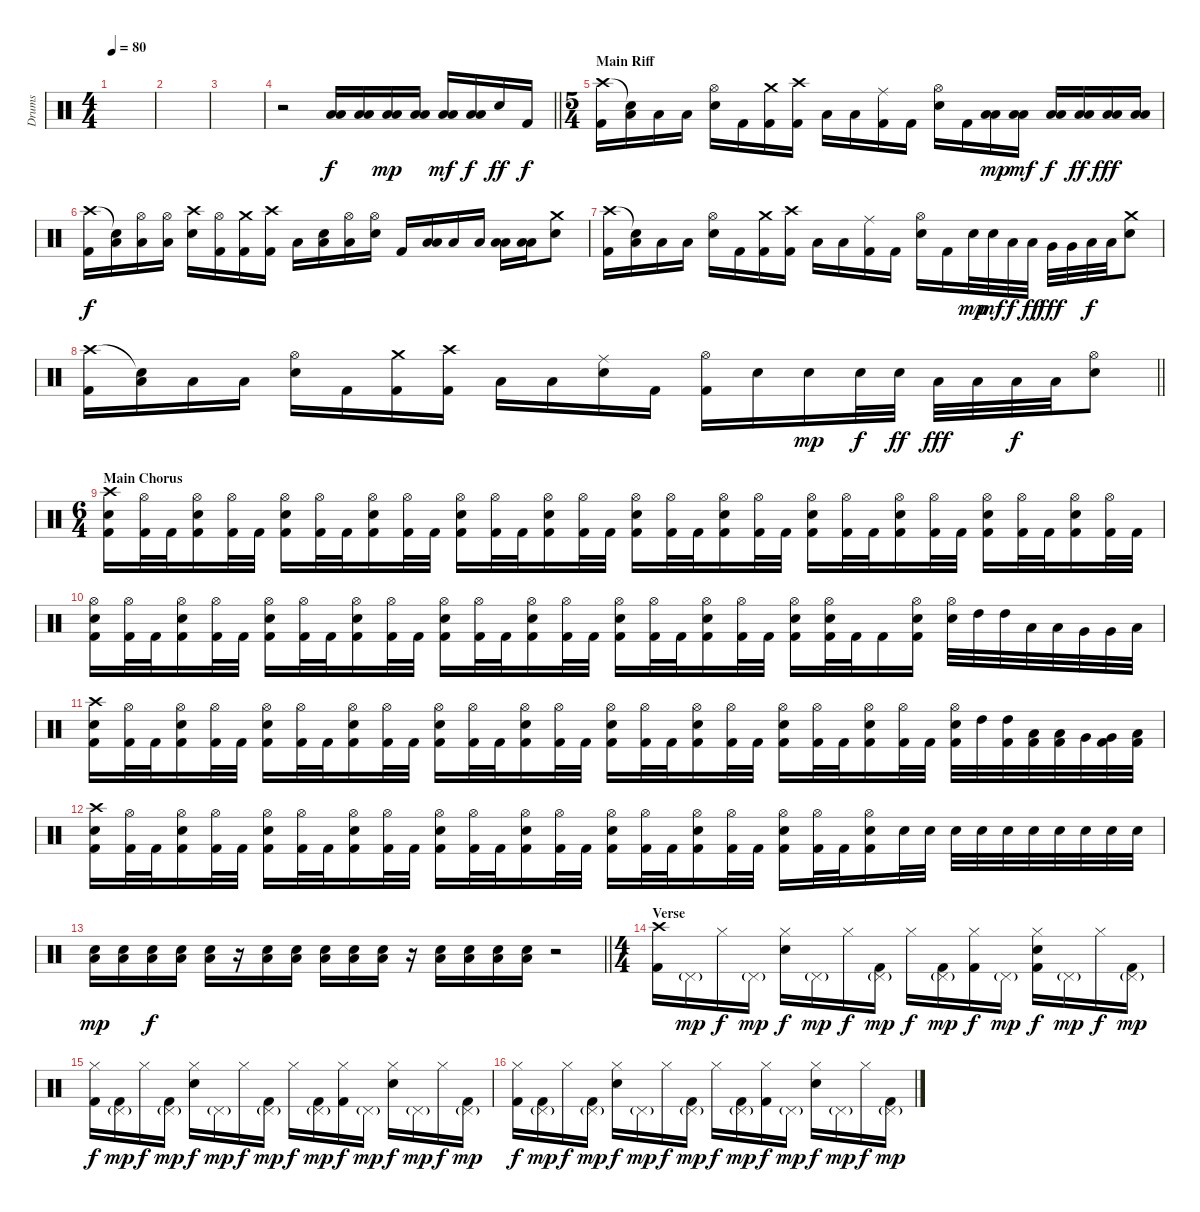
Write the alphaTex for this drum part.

\track ("Drums" "Drums") {instrument percussion}
\staff {score}
\articulation defaults
\ts (4 4)
\tempo 80
\clef neutral
\ks c
|
|
|
\barLineRight lightlight
r.2 ("Low Tom (hit)" "Low Floor Tom (hit)").16 ("Low Tom (hit)" "Low Floor Tom (hit)").16 ("Low Tom (hit)" "Low Floor Tom (hit)").16{dy mp} ("Low Tom (hit)" "Low Floor Tom (hit)").16 ("Low Tom (hit)" "Low Floor Tom (hit)").16{dy mf} ("Low Tom (hit)" "Low Floor Tom (hit)").16{dy f} "Electric Snare (hit)".16{dy ff} "Kick (hit) 2".16{dy f} |
\ts (5 4)
\section ("" "Main Riff")
("Crash high (hit)" "Kick (hit) 2").16 ("Snare (hit)"{t} "Low Floor Tom (hit)").16 "Low Floor Tom (hit)".16 "Low Floor Tom (hit)".16 ("Hi-Hat (open)" "Electric Snare (hit)").16 "Kick (hit) 2".16 ("Crash medium (hit)" "Kick (hit) 2").16 ("Crash high (hit)" "Kick (hit) 2").16 "Low Floor Tom (hit)".16 "Low Floor Tom (hit)".16 ("Ride (middle)" "Kick (hit) 2").16 "Kick (hit) 2".16 ("Hi-Hat (open)" "Electric Snare (hit)").16 "Kick (hit) 2".16 ("Low Tom (hit)" "Low Floor Tom (hit)").16{dy mp} ("Low Tom (hit)" "Low Floor Tom (hit)").16{dy mf} ("Low Tom (hit)" "Low Floor Tom (hit)").16{dy f} ("Low Tom (hit)" "Low Floor Tom (hit)").16{dy ff} ("Low Tom (hit)" "Low Floor Tom (hit)").16{dy fff} ("Low Tom (hit)" "Low Floor Tom (hit)").16 |
("Crash high (hit)" "Kick (hit) 2").16{dy f} ("Snare (hit)"{t} "Low Floor Tom (hit)").16 ("Hi-Hat (open)" "Low Floor Tom (hit)").16 ("Hi-Hat (open)" "Low Floor Tom (hit)").16 ("Crash high (hit)" "Electric Snare (hit)").16 ("Hi-Hat (open)" "Kick (hit) 2").16 ("Crash medium (hit)" "Kick (hit) 2").16 ("Crash high (hit)" "Kick (hit) 2").16 "Low Floor Tom (hit)".16 ("Snare (hit)" "Low Floor Tom (hit)").16 ("Hi-Hat (open)" "Low Floor Tom (hit)").16 ("Hi-Hat (open)" "Electric Snare (hit)").16 "Kick (hit) 2".16 ("Low Tom (hit)" "Low Floor Tom (hit)").16 "Low Floor Tom (hit)".16 "Low Floor Tom (hit)".16 ("Low Tom (hit)" "Low Floor Tom (hit)").16 ("Low Tom (hit)" "Low Floor Tom (hit)").16 ("Crash medium (hit)" "Electric Snare (hit)").8 |
("Crash high (hit)" "Kick (hit) 2").16 ("Snare (hit)"{t} "Low Floor Tom (hit)").16 "Low Floor Tom (hit)".16 "Low Floor Tom (hit)".16 ("Hi-Hat (open)" "Electric Snare (hit)").16 "Kick (hit) 2".16 ("Crash medium (hit)" "Kick (hit) 2").16 ("Crash high (hit)" "Kick (hit) 2").16 "Low Floor Tom (hit)".16 "Low Floor Tom (hit)".16 ("Ride (middle)" "Kick (hit) 2").16 "Kick (hit) 2".16 ("Hi-Hat (open)" "Electric Snare (hit)").16 "Kick (hit) 2".16 "Electric Snare (hit)".32{dy mp} "Electric Snare (hit)".32{dy mf} "Low Tom (hit)".32{dy f} "Low Tom (hit)".32{dy ff} "Very Low Tom (hit)".32{dy fff} "Very Low Tom (hit)".32 "Low Floor Tom (hit)".32{dy f} "Low Floor Tom (hit)".32 ("Crash medium (hit)" "Electric Snare (hit)").8 |
\barLineRight lightlight
("Crash high (hit)" "Kick (hit) 2").16 ("Snare (hit)"{t} "Low Floor Tom (hit)").16 "Low Floor Tom (hit)".16 "Low Floor Tom (hit)".16 ("Hi-Hat (open)" "Electric Snare (hit)").16 "Kick (hit) 2".16 ("Crash medium (hit)" "Kick (hit) 2").16 ("Crash high (hit)" "Kick (hit) 2").16 "Low Floor Tom (hit)".16 "Low Floor Tom (hit)".16 ("Ride (middle)" "Electric Snare (hit)").16 "Kick (hit) 2".16 ("Hi-Hat (open)" "Kick (hit) 2").16 "Electric Snare (hit)".16 "Electric Snare (hit)".16{dy mp} "Electric Snare (hit)".32{dy f} "Electric Snare (hit)".32{dy ff} "Low Tom (hit)".32{dy fff} "Low Tom (hit)".32 "Low Floor Tom (hit)".32{dy f} "Low Floor Tom (hit)".32 ("Hi-Hat (open)" "Electric Snare (hit)").8 |
\ts (6 4)
\section ("" "Main Chorus")
("Crash high (hit)" "Electric Snare (hit)" "Kick (hit) 2").16 ("Hi-Hat (open)" "Kick (hit) 2").32 "Kick (hit) 2".32 ("Hi-Hat (open)" "Electric Snare (hit)" "Kick (hit) 2").16 ("Hi-Hat (open)" "Kick (hit) 2").32 "Kick (hit) 2".32 ("Hi-Hat (open)" "Electric Snare (hit)" "Kick (hit) 2").16 ("Hi-Hat (open)" "Kick (hit) 2").32 "Kick (hit) 2".32 ("Hi-Hat (open)" "Electric Snare (hit)" "Kick (hit) 2").16 ("Hi-Hat (open)" "Kick (hit) 2").32 "Kick (hit) 2".32 ("Hi-Hat (open)" "Electric Snare (hit)" "Kick (hit) 2").16 ("Hi-Hat (open)" "Kick (hit) 2").32 "Kick (hit) 2".32 ("Hi-Hat (open)" "Electric Snare (hit)" "Kick (hit) 2").16 ("Hi-Hat (open)" "Kick (hit) 2").32 "Kick (hit) 2".32 ("Hi-Hat (open)" "Electric Snare (hit)" "Kick (hit) 2").16 ("Hi-Hat (open)" "Kick (hit) 2").32 "Kick (hit) 2".32 ("Hi-Hat (open)" "Electric Snare (hit)" "Kick (hit) 2").16 ("Hi-Hat (open)" "Kick (hit) 2").32 "Kick (hit) 2".32 ("Hi-Hat (open)" "Electric Snare (hit)" "Kick (hit) 2").16 ("Hi-Hat (open)" "Kick (hit) 2").32 "Kick (hit) 2".32 ("Hi-Hat (open)" "Electric Snare (hit)" "Kick (hit) 2").16 ("Hi-Hat (open)" "Kick (hit) 2").32 "Kick (hit) 2".32 ("Hi-Hat (open)" "Electric Snare (hit)" "Kick (hit) 2").16 ("Hi-Hat (open)" "Kick (hit) 2").32 "Kick (hit) 2".32 ("Hi-Hat (open)" "Electric Snare (hit)" "Kick (hit) 2").16 ("Hi-Hat (open)" "Kick (hit) 2").32 "Kick (hit) 2".32 |
("Hi-Hat (open)" "Electric Snare (hit)" "Kick (hit) 2").16 ("Hi-Hat (open)" "Kick (hit) 2").32 "Kick (hit) 2".32 ("Hi-Hat (open)" "Electric Snare (hit)" "Kick (hit) 2").16 ("Hi-Hat (open)" "Kick (hit) 2").32 "Kick (hit) 2".32 ("Hi-Hat (open)" "Electric Snare (hit)" "Kick (hit) 2").16 ("Hi-Hat (open)" "Kick (hit) 2").32 "Kick (hit) 2".32 ("Hi-Hat (open)" "Electric Snare (hit)" "Kick (hit) 2").16 ("Hi-Hat (open)" "Kick (hit) 2").32 "Kick (hit) 2".32 ("Hi-Hat (open)" "Electric Snare (hit)" "Kick (hit) 2").16 ("Hi-Hat (open)" "Kick (hit) 2").32 "Kick (hit) 2".32 ("Hi-Hat (open)" "Electric Snare (hit)" "Kick (hit) 2").16 ("Hi-Hat (open)" "Kick (hit) 2").32 "Kick (hit) 2".32 ("Hi-Hat (open)" "Electric Snare (hit)" "Kick (hit) 2").16 ("Hi-Hat (open)" "Kick (hit) 2").32 "Kick (hit) 2".32 ("Hi-Hat (open)" "Electric Snare (hit)" "Kick (hit) 2").16 ("Hi-Hat (open)" "Kick (hit) 2").32 "Kick (hit) 2".32 ("Hi-Hat (open)" "Kick (hit) 2" "Electric Snare (hit)").16 ("Hi-Hat (open)" "Kick (hit) 2" "Electric Snare (hit)").32 "Kick (hit) 2".32 "Kick (hit) 2".16 ("Hi-Hat (open)" "Kick (hit) 2" "Electric Snare (hit)").16 ("Hi-Hat (open)" "Electric Snare (hit)").32 "High Tom (hit)".32 "High Tom (hit)".32 "Low Tom (hit)".32 "Low Tom (hit)".32 "Very Low Tom (hit)".32 "Very Low Tom (hit)".32 "Low Floor Tom (hit)".32 |
("Crash high (hit)" "Electric Snare (hit)" "Kick (hit) 2").16 ("Hi-Hat (open)" "Kick (hit) 2").32 "Kick (hit) 2".32 ("Hi-Hat (open)" "Electric Snare (hit)" "Kick (hit) 2").16 ("Hi-Hat (open)" "Kick (hit) 2").32 "Kick (hit) 2".32 ("Hi-Hat (open)" "Electric Snare (hit)" "Kick (hit) 2").16 ("Hi-Hat (open)" "Kick (hit) 2").32 "Kick (hit) 2".32 ("Hi-Hat (open)" "Electric Snare (hit)" "Kick (hit) 2").16 ("Hi-Hat (open)" "Kick (hit) 2").32 "Kick (hit) 2".32 ("Hi-Hat (open)" "Electric Snare (hit)" "Kick (hit) 2").16 ("Hi-Hat (open)" "Kick (hit) 2").32 "Kick (hit) 2".32 ("Hi-Hat (open)" "Electric Snare (hit)" "Kick (hit) 2").16 ("Hi-Hat (open)" "Kick (hit) 2").32 "Kick (hit) 2".32 ("Hi-Hat (open)" "Electric Snare (hit)" "Kick (hit) 2").16 ("Hi-Hat (open)" "Kick (hit) 2").32 "Kick (hit) 2".32 ("Hi-Hat (open)" "Electric Snare (hit)" "Kick (hit) 2").16 ("Hi-Hat (open)" "Kick (hit) 2").32 "Kick (hit) 2".32 ("Hi-Hat (open)" "Electric Snare (hit)" "Kick (hit) 2").16 ("Hi-Hat (open)" "Kick (hit) 2").32 "Kick (hit) 2".32 ("Hi-Hat (open)" "Electric Snare (hit)" "Kick (hit) 2").16 ("Hi-Hat (open)" "Kick (hit) 2").32 "Kick (hit) 2".32 ("Hi-Hat (open)" "Electric Snare (hit)" "Kick (hit) 2").32 "High Tom (hit)".32 ("High Tom (hit)" "Kick (hit) 2").32 ("Low Tom (hit)" "Kick (hit) 2").32 ("Low Tom (hit)" "Kick (hit) 2").32 "Very Low Tom (hit)".32 ("Very Low Tom (hit)" "Kick (hit) 2").32 ("Low Floor Tom (hit)" "Kick (hit) 2").32 |
("Crash high (hit)" "Electric Snare (hit)" "Kick (hit) 2").16 ("Hi-Hat (open)" "Kick (hit) 2").32 "Kick (hit) 2".32 ("Hi-Hat (open)" "Electric Snare (hit)" "Kick (hit) 2").16 ("Hi-Hat (open)" "Kick (hit) 2").32 "Kick (hit) 2".32 ("Hi-Hat (open)" "Electric Snare (hit)" "Kick (hit) 2").16 ("Hi-Hat (open)" "Kick (hit) 2").32 "Kick (hit) 2".32 ("Hi-Hat (open)" "Electric Snare (hit)" "Kick (hit) 2").16 ("Hi-Hat (open)" "Kick (hit) 2").32 "Kick (hit) 2".32 ("Hi-Hat (open)" "Electric Snare (hit)" "Kick (hit) 2").16 ("Hi-Hat (open)" "Kick (hit) 2").32 "Kick (hit) 2".32 ("Hi-Hat (open)" "Electric Snare (hit)" "Kick (hit) 2").16 ("Hi-Hat (open)" "Kick (hit) 2").32 "Kick (hit) 2".32 ("Hi-Hat (open)" "Electric Snare (hit)" "Kick (hit) 2").16 ("Hi-Hat (open)" "Kick (hit) 2").32 "Kick (hit) 2".32 ("Hi-Hat (open)" "Electric Snare (hit)" "Kick (hit) 2").16 ("Hi-Hat (open)" "Kick (hit) 2").32 "Kick (hit) 2".32 ("Hi-Hat (open)" "Electric Snare (hit)" "Kick (hit) 2").16 ("Hi-Hat (open)" "Kick (hit) 2").32 "Kick (hit) 2".32 ("Hi-Hat (open)" "Electric Snare (hit)" "Kick (hit) 2").16 "Electric Snare (hit)".32 "Electric Snare (hit)".32 "Electric Snare (hit)".32 "Electric Snare (hit)".32 "Electric Snare (hit)".32 "Electric Snare (hit)".32 "Electric Snare (hit)".32 "Electric Snare (hit)".32 "Electric Snare (hit)".32 "Electric Snare (hit)".32 |
\barLineRight lightlight
("Low Tom (hit)" "Electric Snare (hit)").16{dy mp} ("Low Tom (hit)" "Electric Snare (hit)").16 ("Low Tom (hit)" "Electric Snare (hit)").16{dy f} ("Low Tom (hit)" "Electric Snare (hit)").16 ("Low Tom (hit)" "Electric Snare (hit)").16 r.16 ("Low Tom (hit)" "Electric Snare (hit)").16 ("Low Tom (hit)" "Electric Snare (hit)").16 ("Low Tom (hit)" "Electric Snare (hit)").16 ("Low Tom (hit)" "Electric Snare (hit)").16 ("Low Tom (hit)" "Electric Snare (hit)").16 r.16 ("Low Floor Tom (hit)" "Electric Snare (hit)").16 ("Low Floor Tom (hit)" "Electric Snare (hit)").16 ("Low Floor Tom (hit)" "Electric Snare (hit)").16 ("Low Floor Tom (hit)" "Electric Snare (hit)").16 r.2 |
\ts (4 4)
\section ("" "Verse")
("Crash high (hit)" "Kick (hit) 2").16 "Pedal Hi-Hat (hit)"{g}.16{dy mp} "Hi-Hat (closed)".16{dy f} "Pedal Hi-Hat (hit)"{g}.16{dy mp} ("Hi-Hat (closed)" "Electric Snare (hit)").16{dy f} "Pedal Hi-Hat (hit)"{g}.16{dy mp} "Hi-Hat (closed)".16{dy f} ("Pedal Hi-Hat (hit)"{g} "Kick (hit) 2").16{dy mp} "Hi-Hat (closed)".16{dy f} ("Pedal Hi-Hat (hit)"{g} "Kick (hit) 2").16{dy mp} ("Hi-Hat (closed)" "Kick (hit) 2").16{dy f} "Pedal Hi-Hat (hit)"{g}.16{dy mp} ("Hi-Hat (closed)" "Kick (hit) 2" "Electric Snare (hit)").16{dy f} "Pedal Hi-Hat (hit)"{g}.16{dy mp} "Hi-Hat (closed)".16{dy f} ("Pedal Hi-Hat (hit)"{g} "Kick (hit) 2").16{dy mp} |
("Hi-Hat (closed)" "Kick (hit) 2").16{dy f} ("Pedal Hi-Hat (hit)"{g} "Kick (hit) 2").16{dy mp} "Hi-Hat (closed)".16{dy f} ("Pedal Hi-Hat (hit)"{g} "Kick (hit) 2").16{dy mp} ("Hi-Hat (closed)" "Electric Snare (hit)").16{dy f} "Pedal Hi-Hat (hit)"{g}.16{dy mp} "Hi-Hat (closed)".16{dy f} ("Pedal Hi-Hat (hit)"{g} "Kick (hit) 2").16{dy mp} "Hi-Hat (closed)".16{dy f} ("Pedal Hi-Hat (hit)"{g} "Kick (hit) 2").16{dy mp} ("Hi-Hat (closed)" "Kick (hit) 2").16{dy f} "Pedal Hi-Hat (hit)"{g}.16{dy mp} ("Hi-Hat (closed)" "Electric Snare (hit)").16{dy f} "Pedal Hi-Hat (hit)"{g}.16{dy mp} "Hi-Hat (closed)".16{dy f} ("Pedal Hi-Hat (hit)"{g} "Kick (hit) 2").16{dy mp} |
("Hi-Hat (closed)" "Kick (hit) 2").16{dy f} ("Pedal Hi-Hat (hit)"{g} "Kick (hit) 2").16{dy mp} "Hi-Hat (closed)".16{dy f} ("Pedal Hi-Hat (hit)"{g} "Kick (hit) 2").16{dy mp} ("Hi-Hat (closed)" "Electric Snare (hit)").16{dy f} "Pedal Hi-Hat (hit)"{g}.16{dy mp} "Hi-Hat (closed)".16{dy f} ("Pedal Hi-Hat (hit)"{g} "Kick (hit) 2").16{dy mp} "Hi-Hat (closed)".16{dy f} ("Pedal Hi-Hat (hit)"{g} "Kick (hit) 2").16{dy mp} ("Hi-Hat (closed)" "Kick (hit) 2").16{dy f} "Pedal Hi-Hat (hit)"{g}.16{dy mp} ("Hi-Hat (closed)" "Electric Snare (hit)").16{dy f} "Pedal Hi-Hat (hit)"{g}.16{dy mp} "Hi-Hat (closed)".16{dy f} ("Pedal Hi-Hat (hit)"{g} "Kick (hit) 2").16{dy mp}
